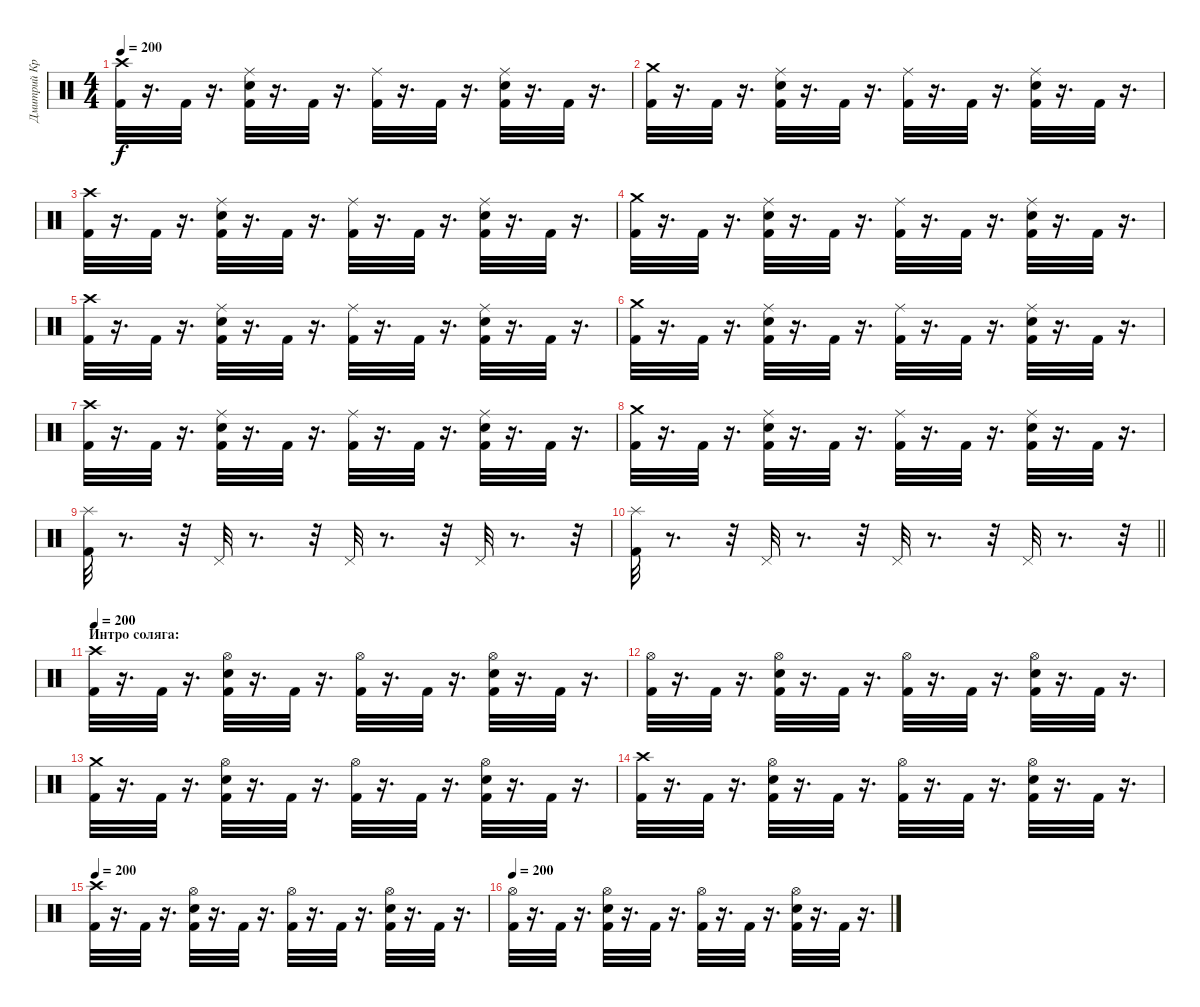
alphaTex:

\track ("Дмитрий Кривенков" "Дмитрий Кр") {instrument percussion}
\staff {score}
\articulation defaults
\ts (4 4)
\tempo 200
\clef neutral
\ks c
("Crash high (hit)" "Kick (hit) 2").32{dy f} r.16{d} "Kick (hit) 2".32 r.16{d} ("Electric Snare (hit)" "Ride (middle)" "Kick (hit) 2").32 r.16{d} "Kick (hit) 2".32 r.16{d} ("Ride (middle)" "Kick (hit) 2").32 r.16{d} "Kick (hit) 2".32 r.16{d} ("Electric Snare (hit)" "Ride (middle)" "Kick (hit) 2").32 r.16{d} "Kick (hit) 2".32 r.16{d} |
("Kick (hit) 2" "Crash medium (hit)").32 r.16{d} "Kick (hit) 2".32 r.16{d} ("Kick (hit) 2" "Electric Snare (hit)" "Ride (middle)").32 r.16{d} "Kick (hit) 2".32 r.16{d} ("Kick (hit) 2" "Ride (middle)").32 r.16{d} "Kick (hit) 2".32 r.16{d} ("Kick (hit) 2" "Electric Snare (hit)" "Ride (middle)").32 r.16{d} "Kick (hit) 2".32 r.16{d} |
("Crash high (hit)" "Kick (hit) 2").32 r.16{d} "Kick (hit) 2".32 r.16{d} ("Electric Snare (hit)" "Ride (middle)" "Kick (hit) 2").32 r.16{d} "Kick (hit) 2".32 r.16{d} ("Ride (middle)" "Kick (hit) 2").32 r.16{d} "Kick (hit) 2".32 r.16{d} ("Electric Snare (hit)" "Ride (middle)" "Kick (hit) 2").32 r.16{d} "Kick (hit) 2".32 r.16{d} |
("Kick (hit) 2" "Crash medium (hit)").32 r.16{d} "Kick (hit) 2".32 r.16{d} ("Kick (hit) 2" "Electric Snare (hit)" "Ride (middle)").32 r.16{d} "Kick (hit) 2".32 r.16{d} ("Kick (hit) 2" "Ride (middle)").32 r.16{d} "Kick (hit) 2".32 r.16{d} ("Kick (hit) 2" "Electric Snare (hit)" "Ride (middle)").32 r.16{d} "Kick (hit) 2".32 r.16{d} |
("Crash high (hit)" "Kick (hit) 2").32 r.16{d} "Kick (hit) 2".32 r.16{d} ("Electric Snare (hit)" "Ride (middle)" "Kick (hit) 2").32 r.16{d} "Kick (hit) 2".32 r.16{d} ("Ride (middle)" "Kick (hit) 2").32 r.16{d} "Kick (hit) 2".32 r.16{d} ("Electric Snare (hit)" "Ride (middle)" "Kick (hit) 2").32 r.16{d} "Kick (hit) 2".32 r.16{d} |
("Kick (hit) 2" "Crash medium (hit)").32 r.16{d} "Kick (hit) 2".32 r.16{d} ("Kick (hit) 2" "Electric Snare (hit)" "Ride (middle)").32 r.16{d} "Kick (hit) 2".32 r.16{d} ("Kick (hit) 2" "Ride (middle)").32 r.16{d} "Kick (hit) 2".32 r.16{d} ("Kick (hit) 2" "Electric Snare (hit)" "Ride (middle)").32 r.16{d} "Kick (hit) 2".32 r.16{d} |
("Crash high (hit)" "Kick (hit) 2").32 r.16{d} "Kick (hit) 2".32 r.16{d} ("Electric Snare (hit)" "Ride (middle)" "Kick (hit) 2").32 r.16{d} "Kick (hit) 2".32 r.16{d} ("Ride (middle)" "Kick (hit) 2").32 r.16{d} "Kick (hit) 2".32 r.16{d} ("Electric Snare (hit)" "Ride (middle)" "Kick (hit) 2").32 r.16{d} "Kick (hit) 2".32 r.16{d} |
("Kick (hit) 2" "Crash medium (hit)").32 r.16{d} "Kick (hit) 2".32 r.16{d} ("Kick (hit) 2" "Electric Snare (hit)" "Ride (middle)").32 r.16{d} "Kick (hit) 2".32 r.16{d} ("Kick (hit) 2" "Ride (middle)").32 r.16{d} "Kick (hit) 2".32 r.16{d} ("Kick (hit) 2" "Electric Snare (hit)" "Ride (middle)").32 r.16{d} "Kick (hit) 2".32 r.16{d} |
("Splash (hit)" "Kick (hit) 2").32 r.8{d} r.32 "Pedal Hi-Hat (hit)".32 r.8{d} r.32 "Pedal Hi-Hat (hit)".32 r.8{d} r.32 "Pedal Hi-Hat (hit)".32 r.8{d} r.32 |
\barLineRight lightlight
("Splash (hit)" "Kick (hit) 2").32 r.8{d} r.32 "Pedal Hi-Hat (hit)".32 r.8{d} r.32 "Pedal Hi-Hat (hit)".32 r.8{d} r.32 "Pedal Hi-Hat (hit)".32 r.8{d} r.32 |
\section ("" "Интро соляга:")
\tempo 200
("Crash high (hit)" "Kick (hit) 2").32 r.16{d} "Kick (hit) 2".32 r.16{d} ("Hi-Hat (open)" "Electric Snare (hit)" "Kick (hit) 2").32 r.16{d} "Kick (hit) 2".32 r.16{d} ("Hi-Hat (open)" "Kick (hit) 2").32 r.16{d} "Kick (hit) 2".32 r.16{d} ("Hi-Hat (open)" "Electric Snare (hit)" "Kick (hit) 2").32 r.16{d} "Kick (hit) 2".32 r.16{d} |
("Hi-Hat (open)" "Kick (hit) 2").32 r.16{d} "Kick (hit) 2".32 r.16{d} ("Hi-Hat (open)" "Electric Snare (hit)" "Kick (hit) 2").32 r.16{d} "Kick (hit) 2".32 r.16{d} ("Hi-Hat (open)" "Kick (hit) 2").32 r.16{d} "Kick (hit) 2".32 r.16{d} ("Hi-Hat (open)" "Electric Snare (hit)" "Kick (hit) 2").32 r.16{d} "Kick (hit) 2".32 r.16{d} |
("Kick (hit) 2" "Crash medium (hit)").32 r.16{d} "Kick (hit) 2".32 r.16{d} ("Kick (hit) 2" "Electric Snare (hit)" "Hi-Hat (open)").32 r.16{d} "Kick (hit) 2".32 r.16{d} ("Kick (hit) 2" "Hi-Hat (open)").32 r.16{d} "Kick (hit) 2".32 r.16{d} ("Kick (hit) 2" "Hi-Hat (open)" "Electric Snare (hit)").32 r.16{d} "Kick (hit) 2".32 r.16{d} |
("Kick (hit) 2" "Crash high (hit)").32 r.16{d} "Kick (hit) 2".32 r.16{d} ("Kick (hit) 2" "Electric Snare (hit)" "Hi-Hat (open)").32 r.16{d} "Kick (hit) 2".32 r.16{d} ("Hi-Hat (open)" "Kick (hit) 2").32 r.16{d} "Kick (hit) 2".32 r.16{d} ("Kick (hit) 2" "Electric Snare (hit)" "Hi-Hat (open)").32 r.16{d} "Kick (hit) 2".32 r.16{d} |
\tempo 200
("Crash high (hit)" "Kick (hit) 2").32 r.16{d} "Kick (hit) 2".32 r.16{d} ("Hi-Hat (open)" "Electric Snare (hit)" "Kick (hit) 2").32 r.16{d} "Kick (hit) 2".32 r.16{d} ("Hi-Hat (open)" "Kick (hit) 2").32 r.16{d} "Kick (hit) 2".32 r.16{d} ("Hi-Hat (open)" "Electric Snare (hit)" "Kick (hit) 2").32 r.16{d} "Kick (hit) 2".32 r.16{d} |
\tempo 200
("Hi-Hat (open)" "Kick (hit) 2").32 r.16{d} "Kick (hit) 2".32 r.16{d} ("Hi-Hat (open)" "Electric Snare (hit)" "Kick (hit) 2").32 r.16{d} "Kick (hit) 2".32 r.16{d} ("Hi-Hat (open)" "Kick (hit) 2").32 r.16{d} "Kick (hit) 2".32 r.16{d} ("Hi-Hat (open)" "Electric Snare (hit)" "Kick (hit) 2").32 r.16{d} "Kick (hit) 2".32 r.16{d}
